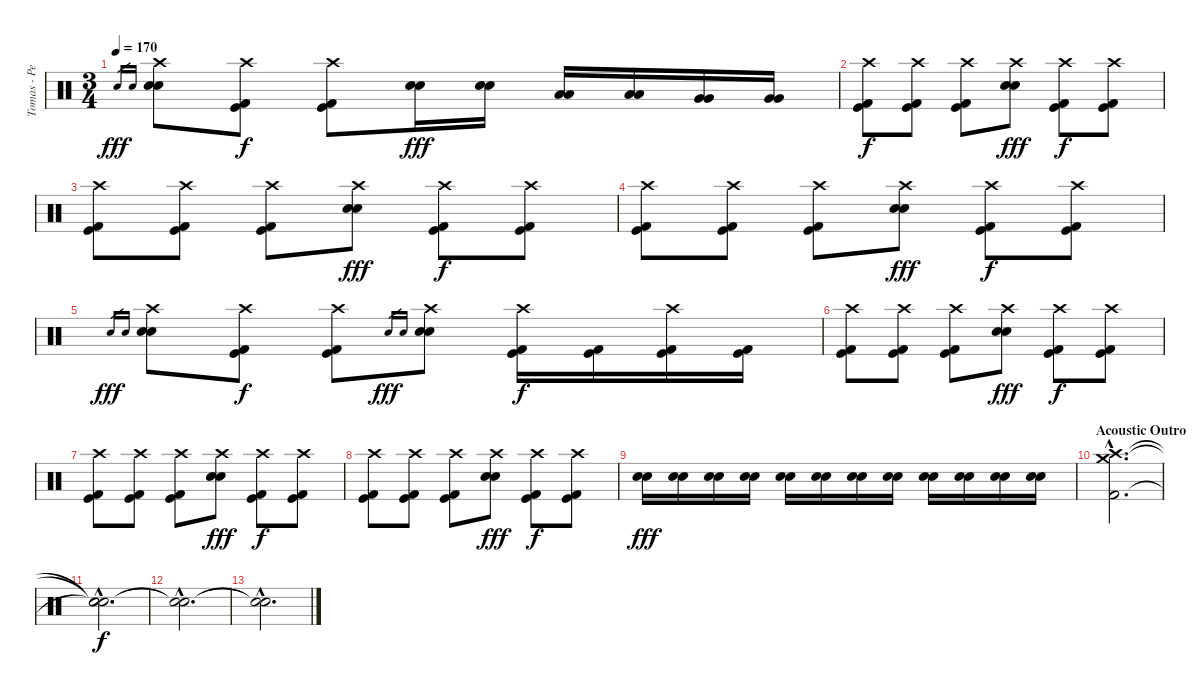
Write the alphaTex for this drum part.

\track ("Tomas - Percussions" "Tomas - Pe") {instrument percussion}
\staff {score}
\articulation defaults
\ts (3 4)
\tempo 170
\clef neutral
\ks c "Electric Snare (hit)".16{gr dy fff} "Electric Snare (hit)".16{gr}
("Crash high (hit)" "Electric Snare (hit)" "Electric Snare (hit)").8 ("Crash high (hit)" "Kick (hit)" "Kick (hit) 2").8{dy f} ("Crash high (hit)" "Kick (hit)" "Kick (hit) 2").8 ("Electric Snare (hit)" "Electric Snare (hit)").16{dy fff} ("Electric Snare (hit)" "Electric Snare (hit)").16 ("Low Tom (hit)" "Low Tom (hit)").16 ("Low Tom (hit)" "Low Tom (hit)").16 ("Very Low Tom (hit)" "Very Low Tom (hit)").16 ("Very Low Tom (hit)" "Very Low Tom (hit)").16 |
("Crash high (hit)" "Kick (hit)" "Kick (hit) 2").8{dy f} ("Crash high (hit)" "Kick (hit)" "Kick (hit) 2").8 ("Crash high (hit)" "Kick (hit)" "Kick (hit) 2").8 ("Crash high (hit)" "Electric Snare (hit)" "Electric Snare (hit)").8{dy fff} ("Crash high (hit)" "Kick (hit)" "Kick (hit) 2").8{dy f} ("Crash high (hit)" "Kick (hit)" "Kick (hit) 2").8 |
("Crash high (hit)" "Kick (hit)" "Kick (hit) 2").8 ("Crash high (hit)" "Kick (hit)" "Kick (hit) 2").8 ("Crash high (hit)" "Kick (hit)" "Kick (hit) 2").8 ("Crash high (hit)" "Electric Snare (hit)" "Electric Snare (hit)").8{dy fff} ("Crash high (hit)" "Kick (hit)" "Kick (hit) 2").8{dy f} ("Crash high (hit)" "Kick (hit)" "Kick (hit) 2").8 |
("Crash high (hit)" "Kick (hit)" "Kick (hit) 2").8 ("Crash high (hit)" "Kick (hit)" "Kick (hit) 2").8 ("Crash high (hit)" "Kick (hit)" "Kick (hit) 2").8 ("Crash high (hit)" "Electric Snare (hit)" "Electric Snare (hit)").8{dy fff} ("Crash high (hit)" "Kick (hit)" "Kick (hit) 2").8{dy f} ("Crash high (hit)" "Kick (hit)" "Kick (hit) 2").8 |
"Electric Snare (hit)".16{gr dy fff} "Electric Snare (hit)".16{gr} ("Crash high (hit)" "Electric Snare (hit)" "Electric Snare (hit)").8 ("Crash high (hit)" "Kick (hit)" "Kick (hit) 2").8{dy f} ("Crash high (hit)" "Kick (hit)" "Kick (hit) 2").8 "Electric Snare (hit)".16{gr dy fff} "Electric Snare (hit)".16{gr} ("Crash high (hit)" "Electric Snare (hit)" "Electric Snare (hit)").8 ("Crash high (hit)" "Kick (hit)" "Kick (hit) 2").16{dy f} ("Kick (hit)" "Kick (hit) 2").16 ("Crash high (hit)" "Kick (hit)" "Kick (hit) 2").16 ("Kick (hit)" "Kick (hit) 2").16 |
("Crash high (hit)" "Kick (hit)" "Kick (hit) 2").8 ("Crash high (hit)" "Kick (hit)" "Kick (hit) 2").8 ("Crash high (hit)" "Kick (hit)" "Kick (hit) 2").8 ("Crash high (hit)" "Electric Snare (hit)" "Electric Snare (hit)").8{dy fff} ("Crash high (hit)" "Kick (hit)" "Kick (hit) 2").8{dy f} ("Crash high (hit)" "Kick (hit)" "Kick (hit) 2").8 |
("Crash high (hit)" "Kick (hit)" "Kick (hit) 2").8 ("Crash high (hit)" "Kick (hit)" "Kick (hit) 2").8 ("Crash high (hit)" "Kick (hit)" "Kick (hit) 2").8 ("Crash high (hit)" "Electric Snare (hit)" "Electric Snare (hit)").8{dy fff} ("Crash high (hit)" "Kick (hit)" "Kick (hit) 2").8{dy f} ("Crash high (hit)" "Kick (hit)" "Kick (hit) 2").8 |
("Crash high (hit)" "Kick (hit)" "Kick (hit) 2").8 ("Crash high (hit)" "Kick (hit)" "Kick (hit) 2").8 ("Crash high (hit)" "Kick (hit)" "Kick (hit) 2").8 ("Crash high (hit)" "Electric Snare (hit)" "Electric Snare (hit)").8{dy fff} ("Crash high (hit)" "Kick (hit)" "Kick (hit) 2").8{dy f} ("Crash high (hit)" "Kick (hit)" "Kick (hit) 2").8 |
("Electric Snare (hit)" "Electric Snare (hit)").16{dy fff} ("Electric Snare (hit)" "Electric Snare (hit)").16 ("Electric Snare (hit)" "Electric Snare (hit)").16 ("Electric Snare (hit)" "Electric Snare (hit)").16 ("Electric Snare (hit)" "Electric Snare (hit)").16 ("Electric Snare (hit)" "Electric Snare (hit)").16 ("Electric Snare (hit)" "Electric Snare (hit)").16 ("Electric Snare (hit)" "Electric Snare (hit)").16 ("Electric Snare (hit)" "Electric Snare (hit)").16 ("Electric Snare (hit)" "Electric Snare (hit)").16 ("Electric Snare (hit)" "Electric Snare (hit)").16 ("Electric Snare (hit)" "Electric Snare (hit)").16 |
\section ("" "Acoustic Outro")
("Crash high (hit)"{hac} "Crash medium (hit)"{hac} "Kick (hit) 2"{hac}).2{d} |
("Snare (hit)"{hac t} "Snare (hit)"{hac t} "Snare (hit)"{hac t}).2{d dy f} |
("Snare (hit)"{hac t} "Snare (hit)"{hac t}).2{d} |
("Snare (hit)"{hac t} "Snare (hit)"{hac t}).2{d}
